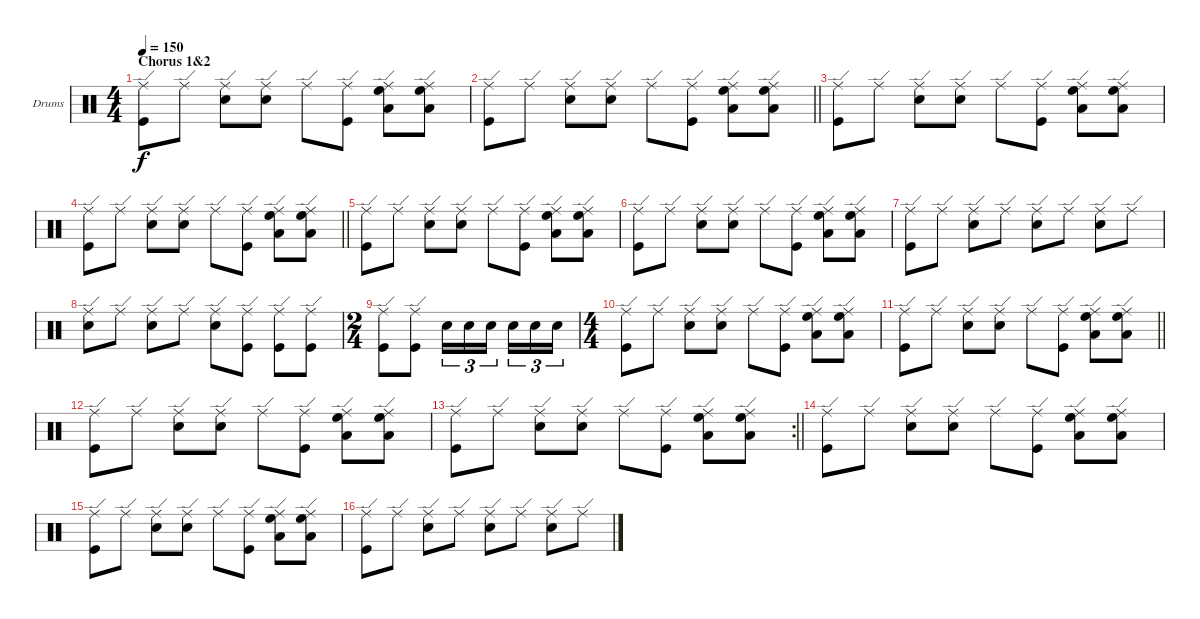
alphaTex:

\bracketExtendMode groupsimilarinstruments
\firstSystemTrackNameOrientation horizontal
\otherSystemsTrackNameOrientation horizontal
\track ("Drumkit" "Drums") {instrument percussion}
\staff {score}
\articulation defaults
\ts (4 4)
\section ("" "Chorus 1&2")
\tempo 150
\clef neutral
\ks c
("Ride (edge)" "Kick (hit)").8{dy f} "Ride (edge)".8 ("Ride (edge)" "Snare (hit) 2").8 ("Ride (edge)" "Snare (hit) 2").8 "Ride (edge)".8 ("Ride (edge)" "Kick (hit)").8 ("Ride (edge)" "High Floor Tom (hit)" "Low Tom (hit)").8 ("Ride (edge)" "High Floor Tom (hit)" "Low Tom (hit)").8 |
\barLineRight lightlight
("Ride (edge)" "Kick (hit)").8 "Ride (edge)".8 ("Ride (edge)" "Snare (hit) 2").8 ("Ride (edge)" "Snare (hit) 2").8 "Ride (edge)".8 ("Ride (edge)" "Kick (hit)").8 ("Ride (edge)" "High Floor Tom (hit)" "Low Tom (hit)").8 ("Ride (edge)" "High Floor Tom (hit)" "Low Tom (hit)").8 |
("Ride (edge)" "Kick (hit)").8 "Ride (edge)".8 ("Ride (edge)" "Snare (hit) 2").8 ("Ride (edge)" "Snare (hit) 2").8 "Ride (edge)".8 ("Ride (edge)" "Kick (hit)").8 ("Ride (edge)" "High Floor Tom (hit)" "Low Tom (hit)").8 ("Ride (edge)" "High Floor Tom (hit)" "Low Tom (hit)").8 |
\barLineRight lightlight
("Ride (edge)" "Kick (hit)").8 "Ride (edge)".8 ("Ride (edge)" "Snare (hit) 2").8 ("Ride (edge)" "Snare (hit) 2").8 "Ride (edge)".8 ("Ride (edge)" "Kick (hit)").8 ("Ride (edge)" "High Floor Tom (hit)" "Low Tom (hit)").8 ("Ride (edge)" "High Floor Tom (hit)" "Low Tom (hit)").8 |
("Ride (edge)" "Kick (hit)").8 "Ride (edge)".8 ("Ride (edge)" "Snare (hit) 2").8 ("Ride (edge)" "Snare (hit) 2").8 "Ride (edge)".8 ("Ride (edge)" "Kick (hit)").8 ("Ride (edge)" "High Floor Tom (hit)" "Low Tom (hit)").8 ("Ride (edge)" "High Floor Tom (hit)" "Low Tom (hit)").8 |
("Ride (edge)" "Kick (hit)").8 "Ride (edge)".8 ("Ride (edge)" "Snare (hit) 2").8 ("Ride (edge)" "Snare (hit) 2").8 "Ride (edge)".8 ("Ride (edge)" "Kick (hit)").8 ("Ride (edge)" "High Floor Tom (hit)" "Low Tom (hit)").8 ("Ride (edge)" "High Floor Tom (hit)" "Low Tom (hit)").8 |
("Ride (edge)" "Kick (hit)").8 "Ride (edge)".8 ("Ride (edge)" "Snare (hit) 2").8 "Ride (edge)".8 ("Ride (edge)" "Snare (hit) 2").8 "Ride (edge)".8 ("Ride (edge)" "Snare (hit) 2").8 "Ride (edge)".8 |
("Ride (edge)" "Snare (hit) 2").8 "Ride (edge)".8 ("Ride (edge)" "Snare (hit) 2").8 "Ride (edge)".8 ("Ride (edge)" "Snare (hit) 2").8 ("Ride (edge)" "Kick (hit)").8 ("Ride (edge)" "Kick (hit)").8 ("Ride (edge)" "Kick (hit)").8 |
\ts (2 4)
\beaming (8 2 2)
("Ride (edge)" "Kick (hit)").8 ("Ride (edge)" "Kick (hit)").8 "Snare (hit) 2".16{tu (3 2)} "Snare (hit) 2".16{tu (3 2)} "Snare (hit) 2".16{tu (3 2)} "Snare (hit) 2".16{tu (3 2)} "Snare (hit) 2".16{tu (3 2)} "Snare (hit) 2".16{tu (3 2)} |
\ts (4 4)
\beaming (8 2 2 2 2)
("Ride (edge)" "Kick (hit)").8 "Ride (edge)".8 ("Ride (edge)" "Snare (hit) 2").8 ("Ride (edge)" "Snare (hit) 2").8 "Ride (edge)".8 ("Ride (edge)" "Kick (hit)").8 ("Ride (edge)" "High Floor Tom (hit)" "Low Tom (hit)").8 ("Ride (edge)" "High Floor Tom (hit)" "Low Tom (hit)").8 |
\barLineRight lightlight
("Ride (edge)" "Kick (hit)").8 "Ride (edge)".8 ("Ride (edge)" "Snare (hit) 2").8 ("Ride (edge)" "Snare (hit) 2").8 "Ride (edge)".8 ("Ride (edge)" "Kick (hit)").8 ("Ride (edge)" "High Floor Tom (hit)" "Low Tom (hit)").8 ("Ride (edge)" "High Floor Tom (hit)" "Low Tom (hit)").8 |
("Ride (edge)" "Kick (hit)").8 "Ride (edge)".8 ("Ride (edge)" "Snare (hit) 2").8 ("Ride (edge)" "Snare (hit) 2").8 "Ride (edge)".8 ("Ride (edge)" "Kick (hit)").8 ("Ride (edge)" "High Floor Tom (hit)" "Low Tom (hit)").8 ("Ride (edge)" "High Floor Tom (hit)" "Low Tom (hit)").8 |
\rc 2
\barLineRight lightlight
("Ride (edge)" "Kick (hit)").8 "Ride (edge)".8 ("Ride (edge)" "Snare (hit) 2").8 ("Ride (edge)" "Snare (hit) 2").8 "Ride (edge)".8 ("Ride (edge)" "Kick (hit)").8 ("Ride (edge)" "High Floor Tom (hit)" "Low Tom (hit)").8 ("Ride (edge)" "High Floor Tom (hit)" "Low Tom (hit)").8 |
("Ride (edge)" "Kick (hit)").8 "Ride (edge)".8 ("Ride (edge)" "Snare (hit) 2").8 ("Ride (edge)" "Snare (hit) 2").8 "Ride (edge)".8 ("Ride (edge)" "Kick (hit)").8 ("Ride (edge)" "High Floor Tom (hit)" "Low Tom (hit)").8 ("Ride (edge)" "High Floor Tom (hit)" "Low Tom (hit)").8 |
("Ride (edge)" "Kick (hit)").8 "Ride (edge)".8 ("Ride (edge)" "Snare (hit) 2").8 ("Ride (edge)" "Snare (hit) 2").8 "Ride (edge)".8 ("Ride (edge)" "Kick (hit)").8 ("Ride (edge)" "High Floor Tom (hit)" "Low Tom (hit)").8 ("Ride (edge)" "High Floor Tom (hit)" "Low Tom (hit)").8 |
("Ride (edge)" "Kick (hit)").8 "Ride (edge)".8 ("Ride (edge)" "Snare (hit) 2").8 "Ride (edge)".8 ("Ride (edge)" "Snare (hit) 2").8 "Ride (edge)".8 ("Ride (edge)" "Snare (hit) 2").8 "Ride (edge)".8
